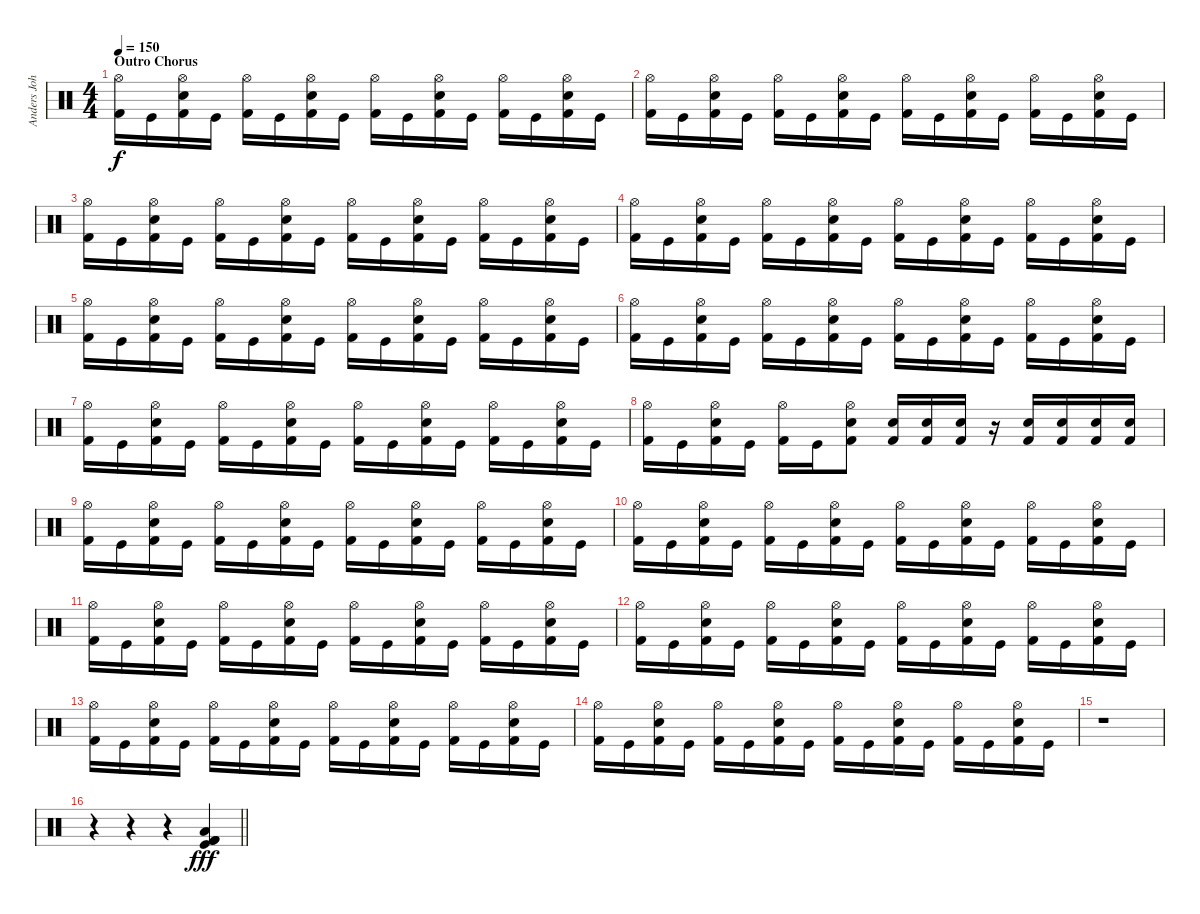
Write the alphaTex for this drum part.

\track ("Anders Johansson" "Anders Joh") {instrument percussion}
\staff {score}
\articulation defaults
\ts (4 4)
\section ("" "Outro Chorus")
\tempo 150
\clef neutral
\ks c
("Hi-Hat (open)" "Kick (hit) 2").16{dy f} "Kick (hit)".16 ("Hi-Hat (open)" "Electric Snare (hit)" "Kick (hit) 2").16 "Kick (hit)".16 ("Hi-Hat (open)" "Kick (hit) 2").16 "Kick (hit)".16 ("Hi-Hat (open)" "Electric Snare (hit)" "Kick (hit) 2").16 "Kick (hit)".16 ("Hi-Hat (open)" "Kick (hit) 2").16 "Kick (hit)".16 ("Hi-Hat (open)" "Electric Snare (hit)" "Kick (hit) 2").16 "Kick (hit)".16 ("Hi-Hat (open)" "Kick (hit) 2").16 "Kick (hit)".16 ("Hi-Hat (open)" "Electric Snare (hit)" "Kick (hit) 2").16 "Kick (hit)".16 |
("Hi-Hat (open)" "Kick (hit) 2").16 "Kick (hit)".16 ("Hi-Hat (open)" "Electric Snare (hit)" "Kick (hit) 2").16 "Kick (hit)".16 ("Hi-Hat (open)" "Kick (hit) 2").16 "Kick (hit)".16 ("Hi-Hat (open)" "Electric Snare (hit)" "Kick (hit) 2").16 "Kick (hit)".16 ("Hi-Hat (open)" "Kick (hit) 2").16 "Kick (hit)".16 ("Hi-Hat (open)" "Electric Snare (hit)" "Kick (hit) 2").16 "Kick (hit)".16 ("Hi-Hat (open)" "Kick (hit) 2").16 "Kick (hit)".16 ("Hi-Hat (open)" "Electric Snare (hit)" "Kick (hit) 2").16 "Kick (hit)".16 |
("Hi-Hat (open)" "Kick (hit) 2").16 "Kick (hit)".16 ("Hi-Hat (open)" "Electric Snare (hit)" "Kick (hit) 2").16 "Kick (hit)".16 ("Hi-Hat (open)" "Kick (hit) 2").16 "Kick (hit)".16 ("Hi-Hat (open)" "Electric Snare (hit)" "Kick (hit) 2").16 "Kick (hit)".16 ("Hi-Hat (open)" "Kick (hit) 2").16 "Kick (hit)".16 ("Hi-Hat (open)" "Electric Snare (hit)" "Kick (hit) 2").16 "Kick (hit)".16 ("Hi-Hat (open)" "Kick (hit) 2").16 "Kick (hit)".16 ("Hi-Hat (open)" "Electric Snare (hit)" "Kick (hit) 2").16 "Kick (hit)".16 |
("Hi-Hat (open)" "Kick (hit) 2").16 "Kick (hit)".16 ("Hi-Hat (open)" "Electric Snare (hit)" "Kick (hit) 2").16 "Kick (hit)".16 ("Hi-Hat (open)" "Kick (hit) 2").16 "Kick (hit)".16 ("Hi-Hat (open)" "Electric Snare (hit)" "Kick (hit) 2").16 "Kick (hit)".16 ("Hi-Hat (open)" "Kick (hit) 2").16 "Kick (hit)".16 ("Hi-Hat (open)" "Electric Snare (hit)" "Kick (hit) 2").16 "Kick (hit)".16 ("Hi-Hat (open)" "Kick (hit) 2").16 "Kick (hit)".16 ("Hi-Hat (open)" "Electric Snare (hit)" "Kick (hit) 2").16 "Kick (hit)".16 |
("Hi-Hat (open)" "Kick (hit) 2").16 "Kick (hit)".16 ("Hi-Hat (open)" "Electric Snare (hit)" "Kick (hit) 2").16 "Kick (hit)".16 ("Hi-Hat (open)" "Kick (hit) 2").16 "Kick (hit)".16 ("Hi-Hat (open)" "Electric Snare (hit)" "Kick (hit) 2").16 "Kick (hit)".16 ("Hi-Hat (open)" "Kick (hit) 2").16 "Kick (hit)".16 ("Hi-Hat (open)" "Electric Snare (hit)" "Kick (hit) 2").16 "Kick (hit)".16 ("Hi-Hat (open)" "Kick (hit) 2").16 "Kick (hit)".16 ("Hi-Hat (open)" "Electric Snare (hit)" "Kick (hit) 2").16 "Kick (hit)".16 |
("Hi-Hat (open)" "Kick (hit) 2").16 "Kick (hit)".16 ("Hi-Hat (open)" "Electric Snare (hit)" "Kick (hit) 2").16 "Kick (hit)".16 ("Hi-Hat (open)" "Kick (hit) 2").16 "Kick (hit)".16 ("Hi-Hat (open)" "Electric Snare (hit)" "Kick (hit) 2").16 "Kick (hit)".16 ("Hi-Hat (open)" "Kick (hit) 2").16 "Kick (hit)".16 ("Hi-Hat (open)" "Electric Snare (hit)" "Kick (hit) 2").16 "Kick (hit)".16 ("Hi-Hat (open)" "Kick (hit) 2").16 "Kick (hit)".16 ("Hi-Hat (open)" "Electric Snare (hit)" "Kick (hit) 2").16 "Kick (hit)".16 |
("Hi-Hat (open)" "Kick (hit) 2").16 "Kick (hit)".16 ("Hi-Hat (open)" "Electric Snare (hit)" "Kick (hit) 2").16 "Kick (hit)".16 ("Hi-Hat (open)" "Kick (hit) 2").16 "Kick (hit)".16 ("Hi-Hat (open)" "Electric Snare (hit)" "Kick (hit) 2").16 "Kick (hit)".16 ("Hi-Hat (open)" "Kick (hit) 2").16 "Kick (hit)".16 ("Hi-Hat (open)" "Electric Snare (hit)" "Kick (hit) 2").16 "Kick (hit)".16 ("Hi-Hat (open)" "Kick (hit) 2").16 "Kick (hit)".16 ("Hi-Hat (open)" "Electric Snare (hit)" "Kick (hit) 2").16 "Kick (hit)".16 |
("Hi-Hat (open)" "Kick (hit) 2").16 "Kick (hit)".16 ("Hi-Hat (open)" "Electric Snare (hit)" "Kick (hit) 2").16 "Kick (hit)".16 ("Hi-Hat (open)" "Kick (hit) 2").16 "Kick (hit)".16 ("Hi-Hat (open)" "Electric Snare (hit)" "Kick (hit) 2").8 ("Electric Snare (hit)" "Kick (hit) 2").16 ("Electric Snare (hit)" "Kick (hit) 2").16 ("Electric Snare (hit)" "Kick (hit) 2").16 r.16 ("Electric Snare (hit)" "Kick (hit) 2").16 ("Electric Snare (hit)" "Kick (hit) 2").16 ("Electric Snare (hit)" "Kick (hit) 2").16 ("Electric Snare (hit)" "Kick (hit) 2").16 |
("Hi-Hat (open)" "Kick (hit) 2").16 "Kick (hit)".16 ("Hi-Hat (open)" "Electric Snare (hit)" "Kick (hit) 2").16 "Kick (hit)".16 ("Hi-Hat (open)" "Kick (hit) 2").16 "Kick (hit)".16 ("Hi-Hat (open)" "Electric Snare (hit)" "Kick (hit) 2").16 "Kick (hit)".16 ("Hi-Hat (open)" "Kick (hit) 2").16 "Kick (hit)".16 ("Hi-Hat (open)" "Electric Snare (hit)" "Kick (hit) 2").16 "Kick (hit)".16 ("Hi-Hat (open)" "Kick (hit) 2").16 "Kick (hit)".16 ("Hi-Hat (open)" "Electric Snare (hit)" "Kick (hit) 2").16 "Kick (hit)".16 |
("Hi-Hat (open)" "Kick (hit) 2").16 "Kick (hit)".16 ("Hi-Hat (open)" "Electric Snare (hit)" "Kick (hit) 2").16 "Kick (hit)".16 ("Hi-Hat (open)" "Kick (hit) 2").16 "Kick (hit)".16 ("Hi-Hat (open)" "Electric Snare (hit)" "Kick (hit) 2").16 "Kick (hit)".16 ("Hi-Hat (open)" "Kick (hit) 2").16 "Kick (hit)".16 ("Hi-Hat (open)" "Electric Snare (hit)" "Kick (hit) 2").16 "Kick (hit)".16 ("Hi-Hat (open)" "Kick (hit) 2").16 "Kick (hit)".16 ("Hi-Hat (open)" "Electric Snare (hit)" "Kick (hit) 2").16 "Kick (hit)".16 |
("Hi-Hat (open)" "Kick (hit) 2").16 "Kick (hit)".16 ("Hi-Hat (open)" "Electric Snare (hit)" "Kick (hit) 2").16 "Kick (hit)".16 ("Hi-Hat (open)" "Kick (hit) 2").16 "Kick (hit)".16 ("Hi-Hat (open)" "Electric Snare (hit)" "Kick (hit) 2").16 "Kick (hit)".16 ("Hi-Hat (open)" "Kick (hit) 2").16 "Kick (hit)".16 ("Hi-Hat (open)" "Electric Snare (hit)" "Kick (hit) 2").16 "Kick (hit)".16 ("Hi-Hat (open)" "Kick (hit) 2").16 "Kick (hit)".16 ("Hi-Hat (open)" "Electric Snare (hit)" "Kick (hit) 2").16 "Kick (hit)".16 |
("Hi-Hat (open)" "Kick (hit) 2").16 "Kick (hit)".16 ("Hi-Hat (open)" "Electric Snare (hit)" "Kick (hit) 2").16 "Kick (hit)".16 ("Hi-Hat (open)" "Kick (hit) 2").16 "Kick (hit)".16 ("Hi-Hat (open)" "Electric Snare (hit)" "Kick (hit) 2").16 "Kick (hit)".16 ("Hi-Hat (open)" "Kick (hit) 2").16 "Kick (hit)".16 ("Hi-Hat (open)" "Electric Snare (hit)" "Kick (hit) 2").16 "Kick (hit)".16 ("Hi-Hat (open)" "Kick (hit) 2").16 "Kick (hit)".16 ("Hi-Hat (open)" "Electric Snare (hit)" "Kick (hit) 2").16 "Kick (hit)".16 |
("Hi-Hat (open)" "Kick (hit) 2").16 "Kick (hit)".16 ("Hi-Hat (open)" "Electric Snare (hit)" "Kick (hit) 2").16 "Kick (hit)".16 ("Hi-Hat (open)" "Kick (hit) 2").16 "Kick (hit)".16 ("Hi-Hat (open)" "Electric Snare (hit)" "Kick (hit) 2").16 "Kick (hit)".16 ("Hi-Hat (open)" "Kick (hit) 2").16 "Kick (hit)".16 ("Hi-Hat (open)" "Electric Snare (hit)" "Kick (hit) 2").16 "Kick (hit)".16 ("Hi-Hat (open)" "Kick (hit) 2").16 "Kick (hit)".16 ("Hi-Hat (open)" "Electric Snare (hit)" "Kick (hit) 2").16 "Kick (hit)".16 |
("Hi-Hat (open)" "Kick (hit) 2").16 "Kick (hit)".16 ("Hi-Hat (open)" "Electric Snare (hit)" "Kick (hit) 2").16 "Kick (hit)".16 ("Hi-Hat (open)" "Kick (hit) 2").16 "Kick (hit)".16 ("Hi-Hat (open)" "Electric Snare (hit)" "Kick (hit) 2").16 "Kick (hit)".16 ("Hi-Hat (open)" "Kick (hit) 2").16 "Kick (hit)".16 ("Hi-Hat (open)" "Electric Snare (hit)" "Kick (hit) 2").16 "Kick (hit)".16 ("Hi-Hat (open)" "Kick (hit) 2").16 "Kick (hit)".16 ("Hi-Hat (open)" "Electric Snare (hit)" "Kick (hit) 2").16 "Kick (hit)".16 |
r.1 |
\barLineRight lightlight
r.4 r.4 r.4 ("Low Tom (hit)" "Kick (hit) 2" "Kick (hit)" "Kick (hit) 2").4{dy fff}
